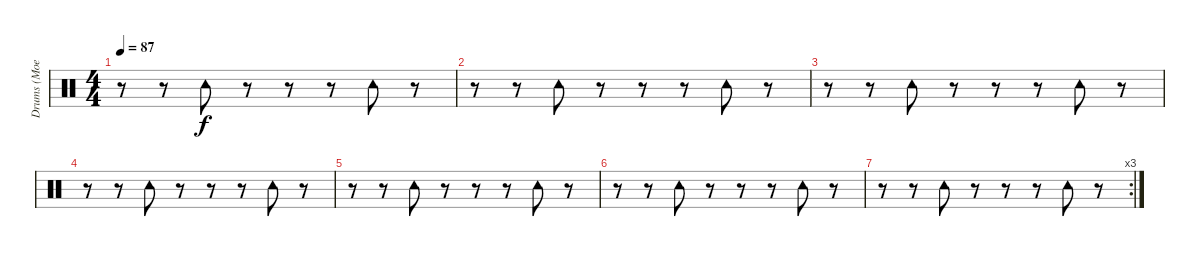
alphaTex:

\track ("Drums (Moe Tucker)" "Drums (Moe") {instrument percussion}
\staff {score}
\articulation defaults
\ts (4 4)
\tempo 87
\clef neutral
\ks c
r.8{dy f} r.8 "Tambourine (hit)".8 r.8 r.8 r.8 "Tambourine (hit)".8 r.8 |
r.8 r.8 "Tambourine (hit)".8 r.8 r.8 r.8 "Tambourine (hit)".8 r.8 |
r.8 r.8 "Tambourine (hit)".8 r.8 r.8 r.8 "Tambourine (hit)".8 r.8 |
r.8 r.8 "Tambourine (hit)".8 r.8 r.8 r.8 "Tambourine (hit)".8 r.8 |
r.8 r.8 "Tambourine (hit)".8 r.8 r.8 r.8 "Tambourine (hit)".8 r.8 |
r.8 r.8 "Tambourine (hit)".8 r.8 r.8 r.8 "Tambourine (hit)".8 r.8 |
\rc 3
r.8 r.8 "Tambourine (hit)".8 r.8 r.8 r.8 "Tambourine (hit)".8 r.8
